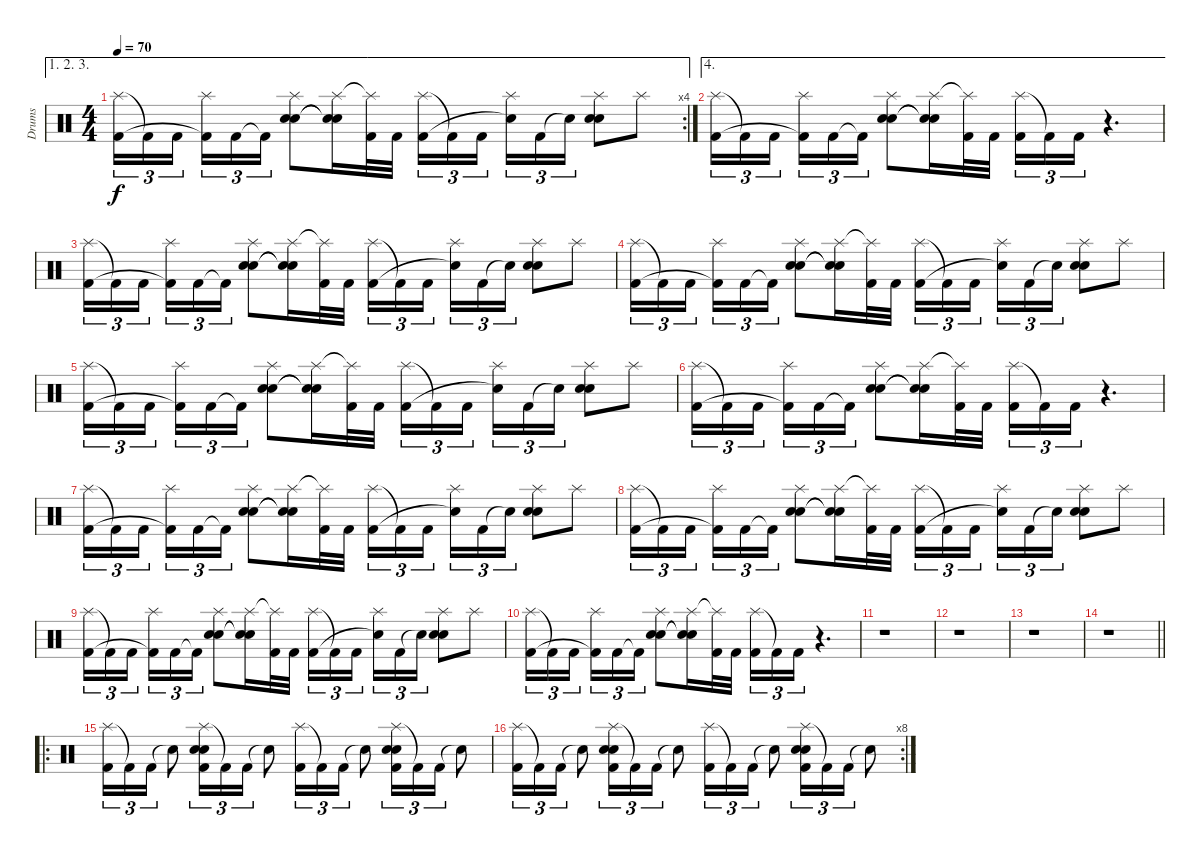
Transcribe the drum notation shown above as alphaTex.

\track ("Drums" "Drums") {instrument percussion}
\staff {score}
\articulation defaults
\ae (1 2 3)
\rc 4
\ts (4 4)
\tempo 70
\clef neutral
\ks c
("Splash (hit)" "Kick (hit) 2").16{tu (3 2) dy f} "Kick (hit) 2"{t}.16{tu (3 2)} "Kick (hit) 2".16{tu (3 2) beam splitsecondary} ("Splash (hit)" "Kick (hit) 2"{t}).16{tu (3 2)} "Kick (hit) 2".16{tu (3 2)} "Kick (hit) 2"{t}.16{tu (3 2)} ("Splash (hit)" "Snare (hit) 2" "Electric Snare (hit)").8 ("Splash (hit)" "Snare (hit) 2"{t} "Electric Snare (hit)"{t}).16 ("Splash (hit)"{t} "Kick (hit) 2").32 "Kick (hit) 2".32 ("Splash (hit)" "Kick (hit) 2").16{tu (3 2)} "Kick (hit) 2"{t}.16{tu (3 2)} "Kick (hit) 2".16{tu (3 2) beam splitsecondary} ("Splash (hit)" "Snare (hit)"{t}).16{tu (3 2)} "Kick (hit) 2".16{tu (3 2)} "Snare (hit)"{t}.16{tu (3 2)} ("Splash (hit)" "Snare (hit) 2" "Electric Snare (hit)").8 "Splash (hit)".8 |
\ae 4
("Splash (hit)" "Kick (hit) 2").16{tu (3 2)} "Kick (hit) 2"{t}.16{tu (3 2)} "Kick (hit) 2".16{tu (3 2) beam splitsecondary} ("Splash (hit)" "Kick (hit) 2"{t}).16{tu (3 2)} "Kick (hit) 2".16{tu (3 2)} "Kick (hit) 2"{t}.16{tu (3 2)} ("Splash (hit)" "Snare (hit) 2" "Electric Snare (hit)").8 ("Splash (hit)" "Snare (hit) 2"{t} "Electric Snare (hit)"{t}).16 ("Splash (hit)"{t} "Kick (hit) 2").32 "Kick (hit) 2".32 ("Splash (hit)" "Kick (hit) 2").16{tu (3 2)} "Kick (hit) 2"{t}.16{tu (3 2)} "Kick (hit) 2".16{tu (3 2)} r.4{d} |
("Splash (hit)" "Kick (hit) 2").16{tu (3 2)} "Kick (hit) 2"{t}.16{tu (3 2)} "Kick (hit) 2".16{tu (3 2) beam splitsecondary} ("Splash (hit)" "Kick (hit) 2"{t}).16{tu (3 2)} "Kick (hit) 2".16{tu (3 2)} "Kick (hit) 2"{t}.16{tu (3 2)} ("Splash (hit)" "Snare (hit) 2" "Electric Snare (hit)").8 ("Splash (hit)" "Snare (hit) 2"{t} "Electric Snare (hit)"{t}).16 ("Splash (hit)"{t} "Kick (hit) 2").32 "Kick (hit) 2".32 ("Splash (hit)" "Kick (hit) 2").16{tu (3 2)} "Kick (hit) 2"{t}.16{tu (3 2)} "Kick (hit) 2".16{tu (3 2) beam splitsecondary} ("Splash (hit)" "Snare (hit)"{t}).16{tu (3 2)} "Kick (hit) 2".16{tu (3 2)} "Snare (hit)"{t}.16{tu (3 2)} ("Splash (hit)" "Snare (hit) 2" "Electric Snare (hit)").8 "Splash (hit)".8 |
("Splash (hit)" "Kick (hit) 2").16{tu (3 2)} "Kick (hit) 2"{t}.16{tu (3 2)} "Kick (hit) 2".16{tu (3 2) beam splitsecondary} ("Splash (hit)" "Kick (hit) 2"{t}).16{tu (3 2)} "Kick (hit) 2".16{tu (3 2)} "Kick (hit) 2"{t}.16{tu (3 2)} ("Splash (hit)" "Snare (hit) 2" "Electric Snare (hit)").8 ("Splash (hit)" "Snare (hit) 2"{t} "Electric Snare (hit)"{t}).16 ("Splash (hit)"{t} "Kick (hit) 2").32 "Kick (hit) 2".32 ("Splash (hit)" "Kick (hit) 2").16{tu (3 2)} "Kick (hit) 2"{t}.16{tu (3 2)} "Kick (hit) 2".16{tu (3 2) beam splitsecondary} ("Splash (hit)" "Snare (hit)"{t}).16{tu (3 2)} "Kick (hit) 2".16{tu (3 2)} "Snare (hit)"{t}.16{tu (3 2)} ("Splash (hit)" "Snare (hit) 2" "Electric Snare (hit)").8 "Splash (hit)".8 |
("Splash (hit)" "Kick (hit) 2").16{tu (3 2)} "Kick (hit) 2"{t}.16{tu (3 2)} "Kick (hit) 2".16{tu (3 2) beam splitsecondary} ("Splash (hit)" "Kick (hit) 2"{t}).16{tu (3 2)} "Kick (hit) 2".16{tu (3 2)} "Kick (hit) 2"{t}.16{tu (3 2)} ("Splash (hit)" "Snare (hit) 2" "Electric Snare (hit)").8 ("Splash (hit)" "Snare (hit) 2"{t} "Electric Snare (hit)"{t}).16 ("Splash (hit)"{t} "Kick (hit) 2").32 "Kick (hit) 2".32 ("Splash (hit)" "Kick (hit) 2").16{tu (3 2)} "Kick (hit) 2"{t}.16{tu (3 2)} "Kick (hit) 2".16{tu (3 2) beam splitsecondary} ("Splash (hit)" "Snare (hit)"{t}).16{tu (3 2)} "Kick (hit) 2".16{tu (3 2)} "Snare (hit)"{t}.16{tu (3 2)} ("Splash (hit)" "Snare (hit) 2" "Electric Snare (hit)").8 "Splash (hit)".8 |
("Splash (hit)" "Kick (hit) 2").16{tu (3 2)} "Kick (hit) 2"{t}.16{tu (3 2)} "Kick (hit) 2".16{tu (3 2) beam splitsecondary} ("Splash (hit)" "Kick (hit) 2"{t}).16{tu (3 2)} "Kick (hit) 2".16{tu (3 2)} "Kick (hit) 2"{t}.16{tu (3 2)} ("Splash (hit)" "Snare (hit) 2" "Electric Snare (hit)").8 ("Splash (hit)" "Snare (hit) 2"{t} "Electric Snare (hit)"{t}).16 ("Splash (hit)"{t} "Kick (hit) 2").32 "Kick (hit) 2".32 ("Splash (hit)" "Kick (hit) 2").16{tu (3 2)} "Kick (hit) 2"{t}.16{tu (3 2)} "Kick (hit) 2".16{tu (3 2)} r.4{d} |
("Splash (hit)" "Kick (hit) 2").16{tu (3 2)} "Kick (hit) 2"{t}.16{tu (3 2)} "Kick (hit) 2".16{tu (3 2) beam splitsecondary} ("Splash (hit)" "Kick (hit) 2"{t}).16{tu (3 2)} "Kick (hit) 2".16{tu (3 2)} "Kick (hit) 2"{t}.16{tu (3 2)} ("Splash (hit)" "Snare (hit) 2" "Electric Snare (hit)").8 ("Splash (hit)" "Snare (hit) 2"{t} "Electric Snare (hit)"{t}).16 ("Splash (hit)"{t} "Kick (hit) 2").32 "Kick (hit) 2".32 ("Splash (hit)" "Kick (hit) 2").16{tu (3 2)} "Kick (hit) 2"{t}.16{tu (3 2)} "Kick (hit) 2".16{tu (3 2) beam splitsecondary} ("Splash (hit)" "Snare (hit)"{t}).16{tu (3 2)} "Kick (hit) 2".16{tu (3 2)} "Snare (hit)"{t}.16{tu (3 2)} ("Splash (hit)" "Snare (hit) 2" "Electric Snare (hit)").8 "Splash (hit)".8 |
("Splash (hit)" "Kick (hit) 2").16{tu (3 2)} "Kick (hit) 2"{t}.16{tu (3 2)} "Kick (hit) 2".16{tu (3 2) beam splitsecondary} ("Splash (hit)" "Kick (hit) 2"{t}).16{tu (3 2)} "Kick (hit) 2".16{tu (3 2)} "Kick (hit) 2"{t}.16{tu (3 2)} ("Splash (hit)" "Snare (hit) 2" "Electric Snare (hit)").8 ("Splash (hit)" "Snare (hit) 2"{t} "Electric Snare (hit)"{t}).16 ("Splash (hit)"{t} "Kick (hit) 2").32 "Kick (hit) 2".32 ("Splash (hit)" "Kick (hit) 2").16{tu (3 2)} "Kick (hit) 2"{t}.16{tu (3 2)} "Kick (hit) 2".16{tu (3 2) beam splitsecondary} ("Splash (hit)" "Snare (hit)"{t}).16{tu (3 2)} "Kick (hit) 2".16{tu (3 2)} "Snare (hit)"{t}.16{tu (3 2)} ("Splash (hit)" "Snare (hit) 2" "Electric Snare (hit)").8 "Splash (hit)".8 |
("Splash (hit)" "Kick (hit) 2").16{tu (3 2)} "Kick (hit) 2"{t}.16{tu (3 2)} "Kick (hit) 2".16{tu (3 2) beam splitsecondary} ("Splash (hit)" "Kick (hit) 2"{t}).16{tu (3 2)} "Kick (hit) 2".16{tu (3 2)} "Kick (hit) 2"{t}.16{tu (3 2)} ("Splash (hit)" "Snare (hit) 2" "Electric Snare (hit)").8 ("Splash (hit)" "Snare (hit) 2"{t} "Electric Snare (hit)"{t}).16 ("Splash (hit)"{t} "Kick (hit) 2").32 "Kick (hit) 2".32 ("Splash (hit)" "Kick (hit) 2").16{tu (3 2)} "Kick (hit) 2"{t}.16{tu (3 2)} "Kick (hit) 2".16{tu (3 2) beam splitsecondary} ("Splash (hit)" "Snare (hit)"{t}).16{tu (3 2)} "Kick (hit) 2".16{tu (3 2)} "Snare (hit)"{t}.16{tu (3 2)} ("Splash (hit)" "Snare (hit) 2" "Electric Snare (hit)").8 "Splash (hit)".8 |
("Splash (hit)" "Kick (hit) 2").16{tu (3 2)} "Kick (hit) 2"{t}.16{tu (3 2)} "Kick (hit) 2".16{tu (3 2) beam splitsecondary} ("Splash (hit)" "Kick (hit) 2"{t}).16{tu (3 2)} "Kick (hit) 2".16{tu (3 2)} "Kick (hit) 2"{t}.16{tu (3 2)} ("Splash (hit)" "Snare (hit) 2" "Electric Snare (hit)").8 ("Splash (hit)" "Snare (hit) 2"{t} "Electric Snare (hit)"{t}).16 ("Splash (hit)"{t} "Kick (hit) 2").32 "Kick (hit) 2".32 ("Splash (hit)" "Kick (hit) 2").16{tu (3 2)} "Kick (hit) 2"{t}.16{tu (3 2)} "Kick (hit) 2".16{tu (3 2)} r.4{d} |
r.1 |
r.1 |
r.1 |
\barLineRight lightlight
r.1 |
\ro
("Splash (hit)" "Kick (hit) 2").16{tu (3 2)} "Kick (hit) 2"{t}.16{tu (3 2)} "Kick (hit) 2".16{tu (3 2)} "Snare (hit)"{t}.8 ("Splash (hit)" "Electric Snare (hit)" "Snare (hit) 2" "Kick (hit) 2").16{tu (3 2)} "Kick (hit) 2"{t}.16{tu (3 2)} "Kick (hit) 2".16{tu (3 2)} "Snare (hit)"{t}.8 ("Splash (hit)" "Kick (hit) 2").16{tu (3 2)} "Kick (hit) 2"{t}.16{tu (3 2)} "Kick (hit) 2".16{tu (3 2)} "Snare (hit)"{t}.8 ("Splash (hit)" "Snare (hit) 2" "Electric Snare (hit)" "Kick (hit) 2").16{tu (3 2)} "Kick (hit) 2"{t}.16{tu (3 2)} "Kick (hit) 2".16{tu (3 2)} "Snare (hit)"{t}.8 |
\rc 8
("Splash (hit)" "Kick (hit) 2").16{tu (3 2)} "Kick (hit) 2"{t}.16{tu (3 2)} "Kick (hit) 2".16{tu (3 2)} "Snare (hit)"{t}.8 ("Splash (hit)" "Electric Snare (hit)" "Snare (hit) 2" "Kick (hit) 2").16{tu (3 2)} "Kick (hit) 2"{t}.16{tu (3 2)} "Kick (hit) 2".16{tu (3 2)} "Snare (hit)"{t}.8 ("Splash (hit)" "Kick (hit) 2").16{tu (3 2)} "Kick (hit) 2"{t}.16{tu (3 2)} "Kick (hit) 2".16{tu (3 2)} "Snare (hit)"{t}.8 ("Splash (hit)" "Snare (hit) 2" "Electric Snare (hit)" "Kick (hit) 2").16{tu (3 2)} "Kick (hit) 2"{t}.16{tu (3 2)} "Kick (hit) 2".16{tu (3 2)} "Snare (hit)"{t}.8
